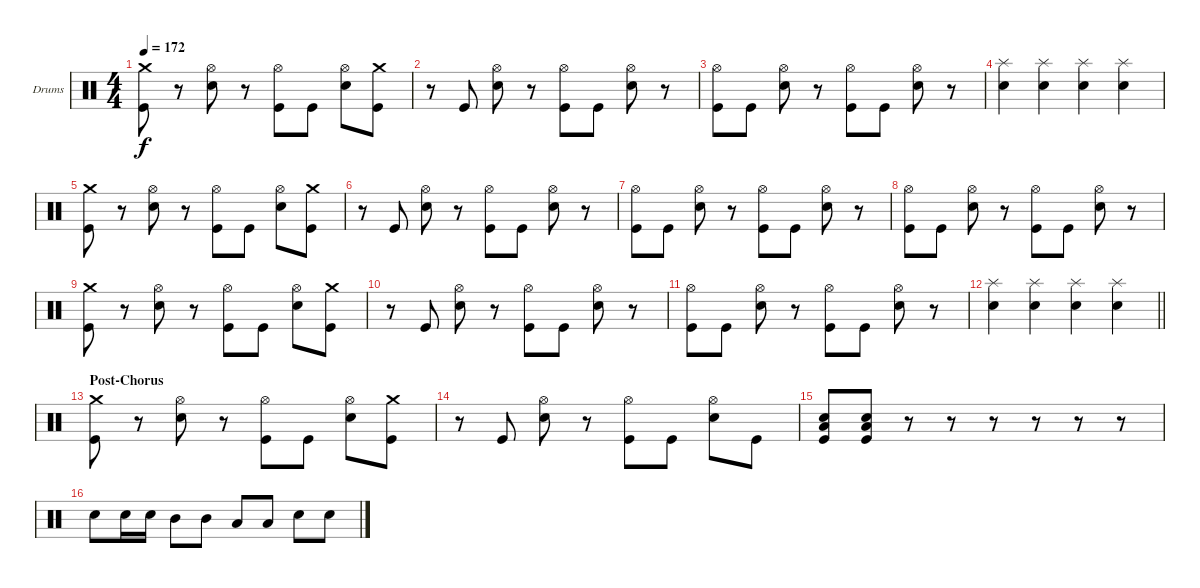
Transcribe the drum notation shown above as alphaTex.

\bracketExtendMode groupsimilarinstruments
\firstSystemTrackNameOrientation horizontal
\otherSystemsTrackNameOrientation horizontal
\track ("Drumkit" "Drums") {instrument percussion}
\staff {score}
\articulation defaults
\ts (4 4)
\tempo 172
\clef neutral
\ks c
("Crash medium (hit)" "Kick (hit)").8{dy f} r.8 ("Hi-Hat (open)" "Snare (hit) 2").8 r.8 ("Hi-Hat (open)" "Kick (hit)").8 "Kick (hit)".8 ("Hi-Hat (open)" "Snare (hit) 2").8 ("Crash medium (hit)" "Kick (hit)").8 |
r.8 "Kick (hit)".8 ("Hi-Hat (open)" "Snare (hit) 2").8 r.8 ("Hi-Hat (open)" "Kick (hit)").8 "Kick (hit)".8 ("Hi-Hat (open)" "Snare (hit) 2").8 r.8 |
("Hi-Hat (open)" "Kick (hit)").8 "Kick (hit)".8 ("Hi-Hat (open)" "Snare (hit) 2").8 r.8 ("Hi-Hat (open)" "Kick (hit)").8 "Kick (hit)".8 ("Hi-Hat (open)" "Snare (hit) 2").8 r.8 |
("Splash (hit)" "Snare (hit) 2").4 ("Splash (hit)" "Snare (hit) 2").4 ("Splash (hit)" "Snare (hit) 2").4 ("Splash (hit)" "Snare (hit) 2").4 |
("Crash medium (hit)" "Kick (hit)").8 r.8 ("Hi-Hat (open)" "Snare (hit) 2").8 r.8 ("Hi-Hat (open)" "Kick (hit)").8 "Kick (hit)".8 ("Hi-Hat (open)" "Snare (hit) 2").8 ("Crash medium (hit)" "Kick (hit)").8 |
r.8 "Kick (hit)".8 ("Hi-Hat (open)" "Snare (hit) 2").8 r.8 ("Hi-Hat (open)" "Kick (hit)").8 "Kick (hit)".8 ("Hi-Hat (open)" "Snare (hit) 2").8 r.8 |
("Hi-Hat (open)" "Kick (hit)").8 "Kick (hit)".8 ("Hi-Hat (open)" "Snare (hit) 2").8 r.8 ("Hi-Hat (open)" "Kick (hit)").8 "Kick (hit)".8 ("Hi-Hat (open)" "Snare (hit) 2").8 r.8 |
("Hi-Hat (open)" "Kick (hit)").8 "Kick (hit)".8 ("Hi-Hat (open)" "Snare (hit) 2").8 r.8 ("Hi-Hat (open)" "Kick (hit)").8 "Kick (hit)".8 ("Hi-Hat (open)" "Snare (hit) 2").8 r.8 |
("Crash medium (hit)" "Kick (hit)").8 r.8 ("Hi-Hat (open)" "Snare (hit) 2").8 r.8 ("Hi-Hat (open)" "Kick (hit)").8 "Kick (hit)".8 ("Hi-Hat (open)" "Snare (hit) 2").8 ("Crash medium (hit)" "Kick (hit)").8 |
r.8 "Kick (hit)".8 ("Hi-Hat (open)" "Snare (hit) 2").8 r.8 ("Hi-Hat (open)" "Kick (hit)").8 "Kick (hit)".8 ("Hi-Hat (open)" "Snare (hit) 2").8 r.8 |
("Hi-Hat (open)" "Kick (hit)").8 "Kick (hit)".8 ("Hi-Hat (open)" "Snare (hit) 2").8 r.8 ("Hi-Hat (open)" "Kick (hit)").8 "Kick (hit)".8 ("Hi-Hat (open)" "Snare (hit) 2").8 r.8 |
\barLineRight lightlight
("Splash (hit)" "Snare (hit) 2").4 ("Splash (hit)" "Snare (hit) 2").4 ("Splash (hit)" "Snare (hit) 2").4 ("Splash (hit)" "Snare (hit) 2").4 |
\section ("" "Post-Chorus")
("Crash medium (hit)" "Kick (hit)").8 r.8 ("Hi-Hat (open)" "Snare (hit) 2").8 r.8 ("Hi-Hat (open)" "Kick (hit)").8 "Kick (hit)".8 ("Hi-Hat (open)" "Snare (hit) 2").8 ("Crash medium (hit)" "Kick (hit)").8 |
r.8 "Kick (hit)".8 ("Hi-Hat (open)" "Snare (hit) 2").8 r.8 ("Hi-Hat (open)" "Kick (hit)").8 "Kick (hit)".8 ("Hi-Hat (open)" "Snare (hit) 2").8 "Kick (hit)".8 |
("Snare (hit) 2" "Low Tom (hit)" "Kick (hit)").8 ("Snare (hit) 2" "Low Tom (hit)" "Kick (hit)").8 r.8 r.8 r.8 r.8 r.8 r.8 |
"Snare (hit) 2".8 "Snare (hit) 2".16 "Snare (hit) 2".16 "Mid Tom (hit)".8 "Mid Tom (hit)".8 "Low Tom (hit)".8 "Low Tom (hit)".8 "Snare (hit) 2".8 "Snare (hit) 2".8
